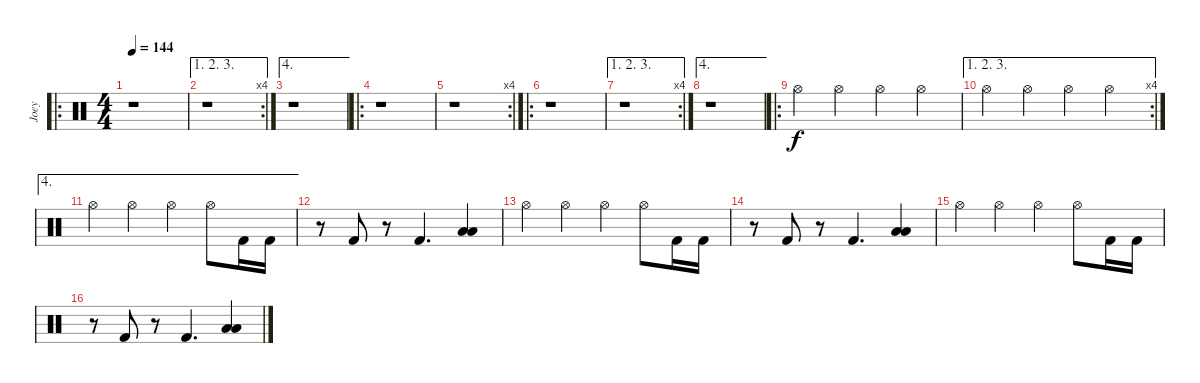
\track ("Joey" "Joey") {instrument percussion}
\staff {score}
\articulation defaults
\ro
\ts (4 4)
\tempo 144
\clef neutral
\ks c
r.1{dy f} |
\ae (1 2 3)
\rc 4
r.1 |
\ae 4
r.1 |
\ro
r.1 |
\rc 4
r.1 |
\ro
r.1 |
\ae (1 2 3)
\rc 4
r.1 |
\ae 4
r.1 |
\ro "Hi-Hat (open)".4 "Hi-Hat (open)".4 "Hi-Hat (open)".4 "Hi-Hat (open)".4
|
\ae (1 2 3)
\rc 4 "Hi-Hat (open)".4 "Hi-Hat (open)".4 "Hi-Hat (open)".4 "Hi-Hat (open)".4
|
\ae 4 "Hi-Hat (open)".4 "Hi-Hat (open)".4 "Hi-Hat (open)".4 "Hi-Hat (open)".8 "Kick (hit) 2".16 "Kick (hit) 2".16
|
r.8 "Kick (hit) 2".8 r.8 "Kick (hit) 2".4{d} ("Low Tom (hit)" "Low Floor Tom (hit)").4 |
"Hi-Hat (open)".4 "Hi-Hat (open)".4 "Hi-Hat (open)".4 "Hi-Hat (open)".8 "Kick (hit) 2".16 "Kick (hit) 2".16 |
r.8 "Kick (hit) 2".8 r.8 "Kick (hit) 2".4{d} ("Low Tom (hit)" "Low Floor Tom (hit)").4 |
"Hi-Hat (open)".4 "Hi-Hat (open)".4 "Hi-Hat (open)".4 "Hi-Hat (open)".8 "Kick (hit) 2".16 "Kick (hit) 2".16 |
r.8 "Kick (hit) 2".8 r.8 "Kick (hit) 2".4{d} ("Low Tom (hit)" "Low Floor Tom (hit)").4
